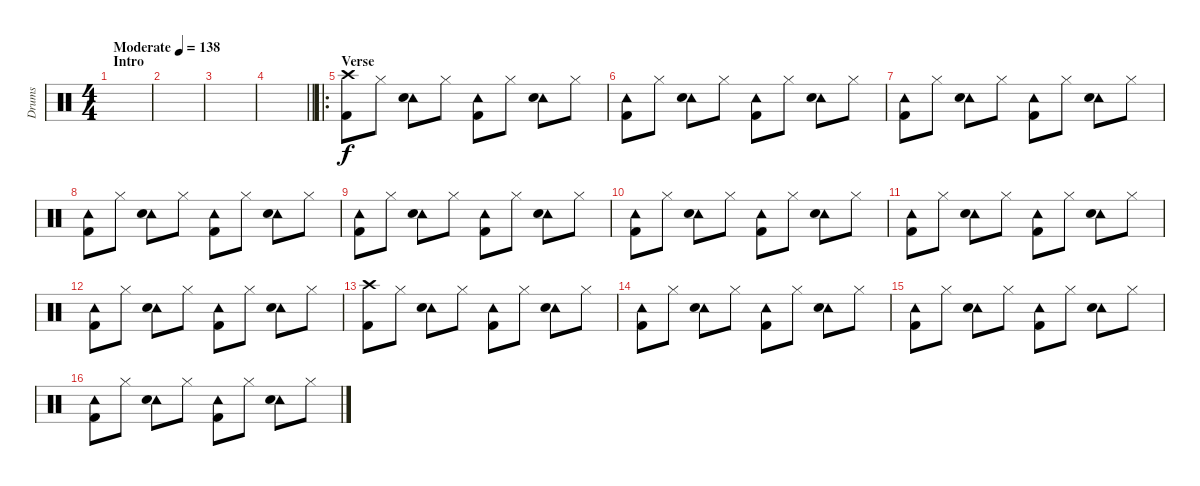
\track ("Drums" "Drums") {instrument percussion}
\staff {score}
\articulation defaults
\ts (4 4)
\section ("" "Intro")
\tempo (138 "Moderate")
\clef neutral
\ks c
|
|
|
\barLineRight lightlight
|
\ro
\section ("" "Verse")
("Crash high (hit)" "Kick (hit) 2").8 "Hi-Hat (closed)".8 ("Tambourine (hit)" "Snare (hit) 2").8 "Hi-Hat (closed)".8 ("Tambourine (hit)" "Kick (hit) 2").8 "Hi-Hat (closed)".8 ("Tambourine (hit)" "Snare (hit) 2").8 "Hi-Hat (closed)".8 |
("Tambourine (hit)" "Kick (hit) 2").8 "Hi-Hat (closed)".8 ("Tambourine (hit)" "Snare (hit) 2").8 "Hi-Hat (closed)".8 ("Tambourine (hit)" "Kick (hit) 2").8 "Hi-Hat (closed)".8 ("Tambourine (hit)" "Snare (hit) 2").8 "Hi-Hat (closed)".8 |
("Tambourine (hit)" "Kick (hit) 2").8 "Hi-Hat (closed)".8 ("Tambourine (hit)" "Snare (hit) 2").8 "Hi-Hat (closed)".8 ("Tambourine (hit)" "Kick (hit) 2").8 "Hi-Hat (closed)".8 ("Tambourine (hit)" "Snare (hit) 2").8 "Hi-Hat (closed)".8 |
("Tambourine (hit)" "Kick (hit) 2").8 "Hi-Hat (closed)".8 ("Tambourine (hit)" "Snare (hit) 2").8 "Hi-Hat (closed)".8 ("Tambourine (hit)" "Kick (hit) 2").8 "Hi-Hat (closed)".8 ("Tambourine (hit)" "Snare (hit) 2").8 "Hi-Hat (closed)".8 |
("Tambourine (hit)" "Kick (hit) 2").8 "Hi-Hat (closed)".8 ("Tambourine (hit)" "Snare (hit) 2").8 "Hi-Hat (closed)".8 ("Tambourine (hit)" "Kick (hit) 2").8 "Hi-Hat (closed)".8 ("Tambourine (hit)" "Snare (hit) 2").8 "Hi-Hat (closed)".8 |
("Tambourine (hit)" "Kick (hit) 2").8 "Hi-Hat (closed)".8 ("Tambourine (hit)" "Snare (hit) 2").8 "Hi-Hat (closed)".8 ("Tambourine (hit)" "Kick (hit) 2").8 "Hi-Hat (closed)".8 ("Tambourine (hit)" "Snare (hit) 2").8 "Hi-Hat (closed)".8 |
("Tambourine (hit)" "Kick (hit) 2").8 "Hi-Hat (closed)".8 ("Tambourine (hit)" "Snare (hit) 2").8 "Hi-Hat (closed)".8 ("Tambourine (hit)" "Kick (hit) 2").8 "Hi-Hat (closed)".8 ("Tambourine (hit)" "Snare (hit) 2").8 "Hi-Hat (closed)".8 |
("Tambourine (hit)" "Kick (hit) 2").8 "Hi-Hat (closed)".8 ("Tambourine (hit)" "Snare (hit) 2").8 "Hi-Hat (closed)".8 ("Tambourine (hit)" "Kick (hit) 2").8 "Hi-Hat (closed)".8 ("Tambourine (hit)" "Snare (hit) 2").8 "Hi-Hat (closed)".8 |
("Crash high (hit)" "Kick (hit) 2").8 "Hi-Hat (closed)".8 ("Tambourine (hit)" "Snare (hit) 2").8 "Hi-Hat (closed)".8 ("Tambourine (hit)" "Kick (hit) 2").8 "Hi-Hat (closed)".8 ("Tambourine (hit)" "Snare (hit) 2").8 "Hi-Hat (closed)".8 |
("Tambourine (hit)" "Kick (hit) 2").8 "Hi-Hat (closed)".8 ("Tambourine (hit)" "Snare (hit) 2").8 "Hi-Hat (closed)".8 ("Tambourine (hit)" "Kick (hit) 2").8 "Hi-Hat (closed)".8 ("Tambourine (hit)" "Snare (hit) 2").8 "Hi-Hat (closed)".8 |
("Tambourine (hit)" "Kick (hit) 2").8 "Hi-Hat (closed)".8 ("Tambourine (hit)" "Snare (hit) 2").8 "Hi-Hat (closed)".8 ("Tambourine (hit)" "Kick (hit) 2").8 "Hi-Hat (closed)".8 ("Tambourine (hit)" "Snare (hit) 2").8 "Hi-Hat (closed)".8 |
("Tambourine (hit)" "Kick (hit) 2").8 "Hi-Hat (closed)".8 ("Tambourine (hit)" "Snare (hit) 2").8 "Hi-Hat (closed)".8 ("Tambourine (hit)" "Kick (hit) 2").8 "Hi-Hat (closed)".8 ("Tambourine (hit)" "Snare (hit) 2").8 "Hi-Hat (closed)".8
